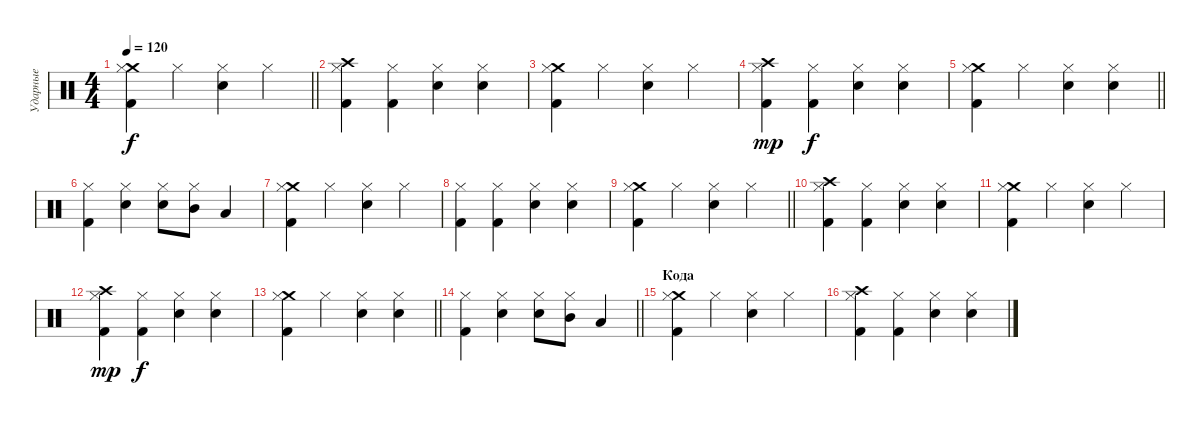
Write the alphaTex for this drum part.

\track ("Ударные" "Ударные") {instrument percussion}
\staff {score}
\articulation defaults
\ts (4 4)
\tempo 120
\clef neutral
\barLineRight lightlight
\ks c
("Crash medium (hit)" "Hi-Hat (closed)" "Kick (hit) 2").4{dy f} "Hi-Hat (closed)".4 ("Snare (hit) 2" "Hi-Hat (closed)").4 "Hi-Hat (closed)".4 |
("Crash high (hit)" "Hi-Hat (closed)" "Kick (hit) 2").4 ("Hi-Hat (closed)" "Kick (hit) 2").4 ("Snare (hit) 2" "Hi-Hat (closed)").4 ("Snare (hit) 2" "Hi-Hat (closed)").4 |
("Crash medium (hit)" "Hi-Hat (closed)" "Kick (hit) 2").4 "Hi-Hat (closed)".4 ("Snare (hit) 2" "Hi-Hat (closed)").4 "Hi-Hat (closed)".4 |
("Crash high (hit)" "Hi-Hat (closed)" "Kick (hit) 2").4{dy mp} ("Hi-Hat (closed)" "Kick (hit) 2").4{dy f} ("Snare (hit) 2" "Hi-Hat (closed)").4 ("Snare (hit) 2" "Hi-Hat (closed)").4 |
\barLineRight lightlight
("Crash medium (hit)" "Hi-Hat (closed)" "Kick (hit) 2").4 "Hi-Hat (closed)".4 ("Snare (hit) 2" "Hi-Hat (closed)").4 ("Snare (hit) 2" "Hi-Hat (closed)").4 |
("Hi-Hat (closed)" "Kick (hit) 2").4 ("Snare (hit) 2" "Hi-Hat (closed)").4 ("Snare (hit) 2" "Hi-Hat (closed)").8 ("Mid Tom (hit)" "Hi-Hat (closed)").8 "Low Tom (hit)".4 |
("Crash medium (hit)" "Hi-Hat (closed)" "Kick (hit) 2").4 "Hi-Hat (closed)".4 ("Snare (hit) 2" "Hi-Hat (closed)").4 "Hi-Hat (closed)".4 |
("Hi-Hat (closed)" "Kick (hit) 2").4 ("Hi-Hat (closed)" "Kick (hit) 2").4 ("Snare (hit) 2" "Hi-Hat (closed)").4 ("Snare (hit) 2" "Hi-Hat (closed)").4 |
\barLineRight lightlight
("Crash medium (hit)" "Hi-Hat (closed)" "Kick (hit) 2").4 "Hi-Hat (closed)".4 ("Snare (hit) 2" "Hi-Hat (closed)").4 "Hi-Hat (closed)".4 |
("Crash high (hit)" "Hi-Hat (closed)" "Kick (hit) 2").4 ("Hi-Hat (closed)" "Kick (hit) 2").4 ("Snare (hit) 2" "Hi-Hat (closed)").4 ("Snare (hit) 2" "Hi-Hat (closed)").4 |
("Crash medium (hit)" "Hi-Hat (closed)" "Kick (hit) 2").4 "Hi-Hat (closed)".4 ("Snare (hit) 2" "Hi-Hat (closed)").4 "Hi-Hat (closed)".4 |
("Crash high (hit)" "Hi-Hat (closed)" "Kick (hit) 2").4{dy mp} ("Hi-Hat (closed)" "Kick (hit) 2").4{dy f} ("Snare (hit) 2" "Hi-Hat (closed)").4 ("Snare (hit) 2" "Hi-Hat (closed)").4 |
\barLineRight lightlight
("Crash medium (hit)" "Hi-Hat (closed)" "Kick (hit) 2").4 "Hi-Hat (closed)".4 ("Snare (hit) 2" "Hi-Hat (closed)").4 ("Snare (hit) 2" "Hi-Hat (closed)").4 |
\barLineRight lightlight
("Hi-Hat (closed)" "Kick (hit) 2").4 ("Snare (hit) 2" "Hi-Hat (closed)").4 ("Snare (hit) 2" "Hi-Hat (closed)").8 ("Mid Tom (hit)" "Hi-Hat (closed)").8 "Low Tom (hit)".4 |
\section ("" "Кода")
("Crash medium (hit)" "Hi-Hat (closed)" "Kick (hit) 2").4 "Hi-Hat (closed)".4 ("Snare (hit) 2" "Hi-Hat (closed)").4 "Hi-Hat (closed)".4 |
("Crash high (hit)" "Hi-Hat (closed)" "Kick (hit) 2").4 ("Hi-Hat (closed)" "Kick (hit) 2").4 ("Snare (hit) 2" "Hi-Hat (closed)").4 ("Snare (hit) 2" "Hi-Hat (closed)").4
